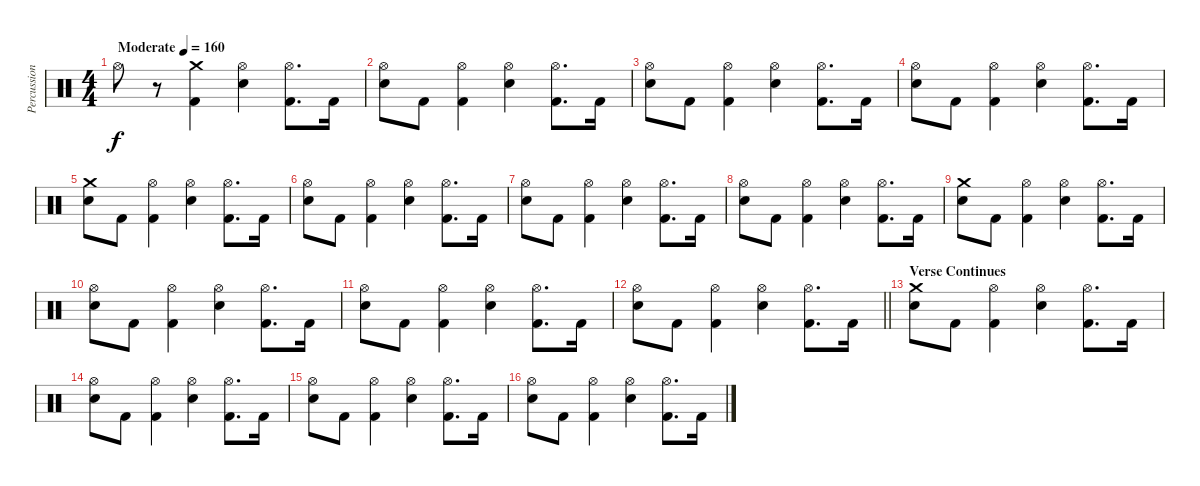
\track ("Percussion" "Percussion") {instrument percussion}
\staff {score}
\articulation defaults
\ts (4 4)
\tempo (160 "Moderate")
\clef neutral
\ks c "Hi-Hat (open)".8{dy f}
r.8 ("Kick (hit) 2" "Crash medium (hit)").4 ("Electric Snare (hit)" "Hi-Hat (open)").4 ("Kick (hit) 2" "Hi-Hat (open)").8{d} "Kick (hit) 2".16 |
("Electric Snare (hit)" "Hi-Hat (open)").8 "Kick (hit) 2".8 ("Kick (hit) 2" "Hi-Hat (open)").4 ("Electric Snare (hit)" "Hi-Hat (open)").4 ("Kick (hit) 2" "Hi-Hat (open)").8{d} "Kick (hit) 2".16 |
("Electric Snare (hit)" "Hi-Hat (open)").8 "Kick (hit) 2".8 ("Kick (hit) 2" "Hi-Hat (open)").4 ("Electric Snare (hit)" "Hi-Hat (open)").4 ("Kick (hit) 2" "Hi-Hat (open)").8{d} "Kick (hit) 2".16 |
("Electric Snare (hit)" "Hi-Hat (open)").8 "Kick (hit) 2".8 ("Kick (hit) 2" "Hi-Hat (open)").4 ("Electric Snare (hit)" "Hi-Hat (open)").4 ("Kick (hit) 2" "Hi-Hat (open)").8{d} "Kick (hit) 2".16 |
("Electric Snare (hit)" "Crash medium (hit)").8 "Kick (hit) 2".8 ("Kick (hit) 2" "Hi-Hat (open)").4 ("Electric Snare (hit)" "Hi-Hat (open)").4 ("Kick (hit) 2" "Hi-Hat (open)").8{d} "Kick (hit) 2".16 |
("Electric Snare (hit)" "Hi-Hat (open)").8 "Kick (hit) 2".8 ("Kick (hit) 2" "Hi-Hat (open)").4 ("Electric Snare (hit)" "Hi-Hat (open)").4 ("Kick (hit) 2" "Hi-Hat (open)").8{d} "Kick (hit) 2".16 |
("Electric Snare (hit)" "Hi-Hat (open)").8 "Kick (hit) 2".8 ("Kick (hit) 2" "Hi-Hat (open)").4 ("Electric Snare (hit)" "Hi-Hat (open)").4 ("Kick (hit) 2" "Hi-Hat (open)").8{d} "Kick (hit) 2".16 |
("Electric Snare (hit)" "Hi-Hat (open)").8 "Kick (hit) 2".8 ("Kick (hit) 2" "Hi-Hat (open)").4 ("Electric Snare (hit)" "Hi-Hat (open)").4 ("Kick (hit) 2" "Hi-Hat (open)").8{d} "Kick (hit) 2".16 |
("Electric Snare (hit)" "Crash medium (hit)").8 "Kick (hit) 2".8 ("Kick (hit) 2" "Hi-Hat (open)").4 ("Electric Snare (hit)" "Hi-Hat (open)").4 ("Kick (hit) 2" "Hi-Hat (open)").8{d} "Kick (hit) 2".16 |
("Electric Snare (hit)" "Hi-Hat (open)").8 "Kick (hit) 2".8 ("Kick (hit) 2" "Hi-Hat (open)").4 ("Electric Snare (hit)" "Hi-Hat (open)").4 ("Kick (hit) 2" "Hi-Hat (open)").8{d} "Kick (hit) 2".16 |
("Electric Snare (hit)" "Hi-Hat (open)").8 "Kick (hit) 2".8 ("Kick (hit) 2" "Hi-Hat (open)").4 ("Electric Snare (hit)" "Hi-Hat (open)").4 ("Kick (hit) 2" "Hi-Hat (open)").8{d} "Kick (hit) 2".16 |
\barLineRight lightlight
("Electric Snare (hit)" "Hi-Hat (open)").8 "Kick (hit) 2".8 ("Kick (hit) 2" "Hi-Hat (open)").4 ("Electric Snare (hit)" "Hi-Hat (open)").4 ("Kick (hit) 2" "Hi-Hat (open)").8{d} "Kick (hit) 2".16 |
\section ("" "Verse Continues")
("Electric Snare (hit)" "Crash medium (hit)").8 "Kick (hit) 2".8 ("Kick (hit) 2" "Hi-Hat (open)").4 ("Electric Snare (hit)" "Hi-Hat (open)").4 ("Kick (hit) 2" "Hi-Hat (open)").8{d} "Kick (hit) 2".16 |
("Electric Snare (hit)" "Hi-Hat (open)").8 "Kick (hit) 2".8 ("Kick (hit) 2" "Hi-Hat (open)").4 ("Electric Snare (hit)" "Hi-Hat (open)").4 ("Kick (hit) 2" "Hi-Hat (open)").8{d} "Kick (hit) 2".16 |
("Electric Snare (hit)" "Hi-Hat (open)").8 "Kick (hit) 2".8 ("Kick (hit) 2" "Hi-Hat (open)").4 ("Electric Snare (hit)" "Hi-Hat (open)").4 ("Kick (hit) 2" "Hi-Hat (open)").8{d} "Kick (hit) 2".16 |
("Electric Snare (hit)" "Hi-Hat (open)").8 "Kick (hit) 2".8 ("Kick (hit) 2" "Hi-Hat (open)").4 ("Electric Snare (hit)" "Hi-Hat (open)").4 ("Kick (hit) 2" "Hi-Hat (open)").8{d} "Kick (hit) 2".16
